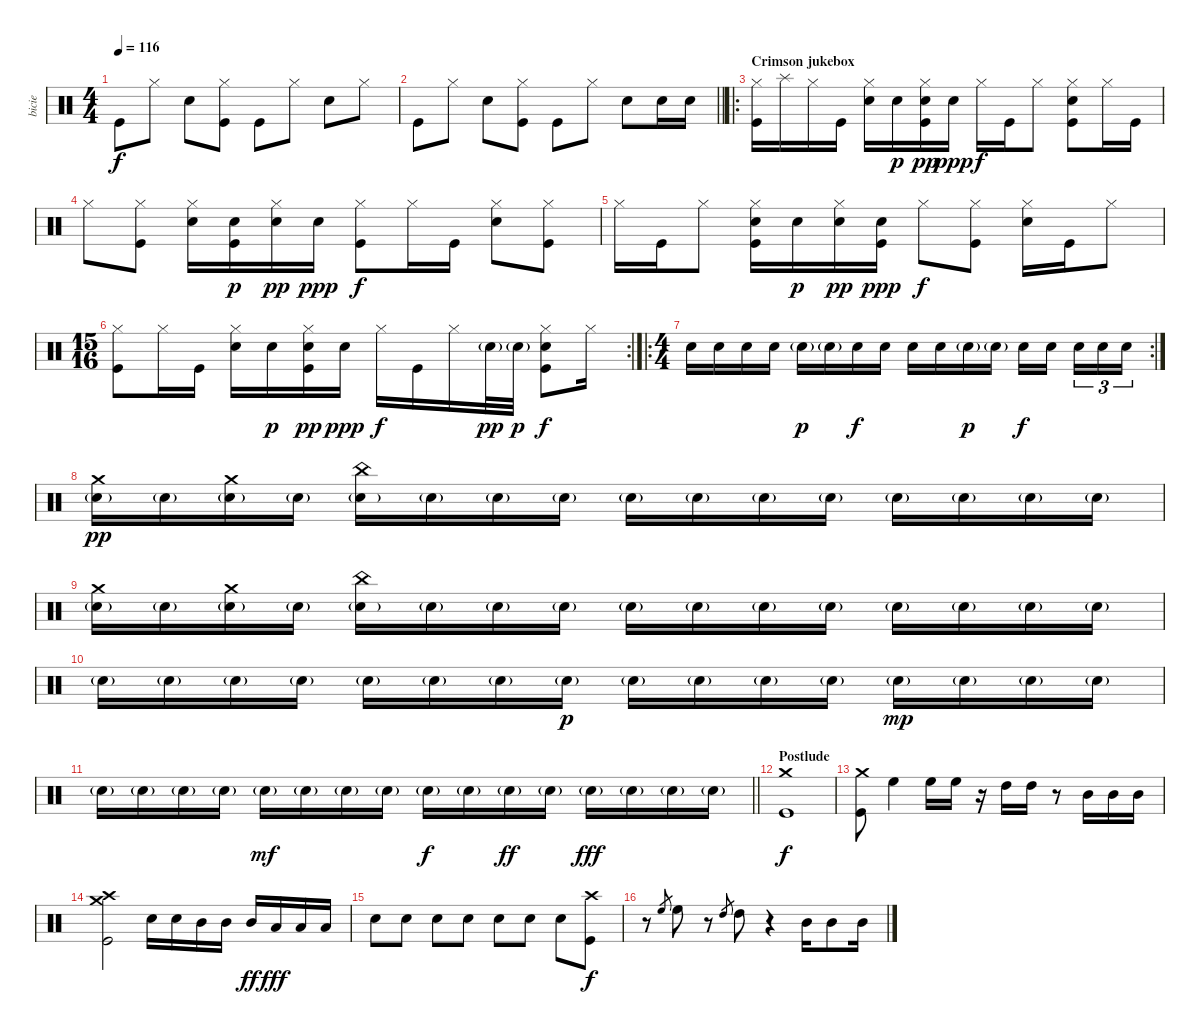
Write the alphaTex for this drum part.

\track ("bicie" "bicie") {instrument percussion}
\staff {score}
\articulation defaults
\ts (4 4)
\tempo 116
\clef neutral
\ks c "Kick (hit)".8{dy f} "Hi-Hat (closed)".8 "Electric Snare (hit)".8
("Hi-Hat (closed)" "Kick (hit)").8 "Kick (hit)".8 "Hi-Hat (closed)".8 "Electric Snare (hit)".8 "Hi-Hat (closed)".8 |
\barLineRight lightlight "Kick (hit)".8 "Hi-Hat (closed)".8 "Electric Snare (hit)".8
("Hi-Hat (closed)" "Kick (hit)").8 "Kick (hit)".8 "Hi-Hat (closed)".8 "Electric Snare (hit)".8 "Electric Snare (hit)".16 "Electric Snare (hit)".16 |
\ro
\section ("" "Crimson jukebox")
("Hi-Hat (closed)" "Kick (hit)").16 "Splash (hit)".16 "Hi-Hat (closed)".16 "Kick (hit)".16 ("Hi-Hat (closed)" "Electric Snare (hit)").16 "Electric Snare (hit)".16{dy p} ("Hi-Hat (closed)" "Electric Snare (hit)" "Kick (hit)").16{dy pp} "Electric Snare (hit)".16{dy ppp} "Hi-Hat (closed)".16{dy f} "Kick (hit)".16 "Hi-Hat (closed)".8 ("Hi-Hat (closed)" "Electric Snare (hit)" "Kick (hit)").8 "Hi-Hat (closed)".16 "Kick (hit)".16 |
"Hi-Hat (closed)".8 ("Hi-Hat (closed)" "Kick (hit)").8 ("Hi-Hat (closed)" "Electric Snare (hit)").16 ("Electric Snare (hit)" "Kick (hit)").16{dy p} ("Hi-Hat (closed)" "Electric Snare (hit)").16{dy pp} "Electric Snare (hit)".16{dy ppp} ("Hi-Hat (closed)" "Kick (hit)").8{dy f} "Hi-Hat (closed)".16 "Kick (hit)".16 ("Hi-Hat (closed)" "Electric Snare (hit)").8 ("Hi-Hat (closed)" "Kick (hit)").8 |
"Hi-Hat (closed)".16 "Kick (hit)".16 "Hi-Hat (closed)".8 ("Hi-Hat (closed)" "Electric Snare (hit)" "Kick (hit)").16 "Electric Snare (hit)".16{dy p} ("Hi-Hat (closed)" "Electric Snare (hit)").16{dy pp} ("Electric Snare (hit)" "Kick (hit)").16{dy ppp} "Hi-Hat (closed)".8{dy f} ("Hi-Hat (closed)" "Kick (hit)").8 ("Hi-Hat (closed)" "Electric Snare (hit)").16 "Kick (hit)".16 "Hi-Hat (closed)".8 |
\rc 2
\ts (15 16)
("Hi-Hat (closed)" "Kick (hit)").8 "Hi-Hat (closed)".16 "Kick (hit)".16 ("Hi-Hat (closed)" "Electric Snare (hit)").16 "Electric Snare (hit)".16{dy p} ("Hi-Hat (closed)" "Electric Snare (hit)" "Kick (hit)").16{dy pp} "Electric Snare (hit)".16{dy ppp} "Hi-Hat (closed)".16{dy f} "Kick (hit)".16 "Hi-Hat (closed)".16 "Electric Snare (hit)"{g}.32{dy pp} "Electric Snare (hit)"{g}.32{dy p} ("Hi-Hat (closed)" "Electric Snare (hit)" "Kick (hit)").8{dy f} "Hi-Hat (closed)".16 |
\ro
\rc 2
\ts (4 4)
"Electric Snare (hit)".16 "Electric Snare (hit)".16 "Electric Snare (hit)".16 "Electric Snare (hit)".16 "Electric Snare (hit)"{g}.16{dy p} "Electric Snare (hit)"{g}.16 "Electric Snare (hit)".16{dy f} "Electric Snare (hit)".16 "Electric Snare (hit)".16 "Electric Snare (hit)".16 "Electric Snare (hit)"{g}.16{dy p} "Electric Snare (hit)"{g}.16 "Electric Snare (hit)".16{dy f} "Electric Snare (hit)".16 "Electric Snare (hit)".16{tu (3 2)} "Electric Snare (hit)".16{tu (3 2)} "Electric Snare (hit)".16{tu (3 2)} |
("Crash medium (hit)" "Electric Snare (hit)"{g}).16{dy pp} "Electric Snare (hit)"{g}.16 ("Crash medium (hit)" "Electric Snare (hit)"{g}).16 "Electric Snare (hit)"{g}.16 ("China (hit)" "Electric Snare (hit)"{g}).16 "Electric Snare (hit)"{g}.16 "Electric Snare (hit)"{g}.16 "Electric Snare (hit)"{g}.16 "Electric Snare (hit)"{g}.16 "Electric Snare (hit)"{g}.16 "Electric Snare (hit)"{g}.16 "Electric Snare (hit)"{g}.16 "Electric Snare (hit)"{g}.16 "Electric Snare (hit)"{g}.16 "Electric Snare (hit)"{g}.16 "Electric Snare (hit)"{g}.16 |
("Crash medium (hit)" "Electric Snare (hit)"{g}).16 "Electric Snare (hit)"{g}.16 ("Crash medium (hit)" "Electric Snare (hit)"{g}).16 "Electric Snare (hit)"{g}.16 ("China (hit)" "Electric Snare (hit)"{g}).16 "Electric Snare (hit)"{g}.16 "Electric Snare (hit)"{g}.16 "Electric Snare (hit)"{g}.16 "Electric Snare (hit)"{g}.16 "Electric Snare (hit)"{g}.16 "Electric Snare (hit)"{g}.16 "Electric Snare (hit)"{g}.16 "Electric Snare (hit)"{g}.16 "Electric Snare (hit)"{g}.16 "Electric Snare (hit)"{g}.16 "Electric Snare (hit)"{g}.16 |
"Electric Snare (hit)"{g}.16 "Electric Snare (hit)"{g}.16 "Electric Snare (hit)"{g}.16 "Electric Snare (hit)"{g}.16 "Electric Snare (hit)"{g}.16 "Electric Snare (hit)"{g}.16 "Electric Snare (hit)"{g}.16 "Electric Snare (hit)"{g}.16{dy p} "Electric Snare (hit)"{g}.16 "Electric Snare (hit)"{g}.16 "Electric Snare (hit)"{g}.16 "Electric Snare (hit)"{g}.16 "Electric Snare (hit)"{g}.16{dy mp} "Electric Snare (hit)"{g}.16 "Electric Snare (hit)"{g}.16 "Electric Snare (hit)"{g}.16 |
\barLineRight lightlight "Electric Snare (hit)"{g}.16 "Electric Snare (hit)"{g}.16 "Electric Snare (hit)"{g}.16 "Electric Snare (hit)"{g}.16 "Electric Snare (hit)"{g}.16{dy mf} "Electric Snare (hit)"{g}.16 "Electric Snare (hit)"{g}.16 "Electric Snare (hit)"{g}.16 "Electric Snare (hit)"{g}.16{dy f} "Electric Snare (hit)"{g}.16 "Electric Snare (hit)"{g}.16{dy ff} "Electric Snare (hit)"{g}.16 "Electric Snare (hit)"{g}.16{dy fff} "Electric Snare (hit)"{g}.16 "Electric Snare (hit)"{g}.16 "Electric Snare (hit)"{g}.16
|
\section ("" "Postlude")
("Crash medium (hit)" "Kick (hit)").1{dy f volume 14} |
("Crash medium (hit)" "Kick (hit)").8 "High Floor Tom (hit)".4 "High Floor Tom (hit)".16 "High Floor Tom (hit)".16 r.16 "High Tom (hit)".16 "High Tom (hit)".16 r.8 "Mid Tom (hit)".16 "Mid Tom (hit)".16 "Mid Tom (hit)".16 |
("Crash medium (hit)" "Crash high (hit)" "Kick (hit)").2 "Electric Snare (hit)".16 "Electric Snare (hit)".16 "Mid Tom (hit)".16 "Mid Tom (hit)".16 "Mid Tom (hit)".16{dy ff} "Low Tom (hit)".16{dy fff} "Low Tom (hit)".16 "Low Tom (hit)".16 |
"Electric Snare (hit)".8 "Electric Snare (hit)".8 "Electric Snare (hit)".8 "Electric Snare (hit)".8 "Electric Snare (hit)".8 "Electric Snare (hit)".8 "Electric Snare (hit)".8 ("Crash high (hit)" "Kick (hit)").8{dy f} |
r.8 "High Floor Tom (hit)".8{gr} "High Floor Tom (hit)".8 r.8 "High Tom (hit)".8{gr} "High Tom (hit)".8 r.4 "Mid Tom (hit)".16 "Mid Tom (hit)".8 "Mid Tom (hit)".16
